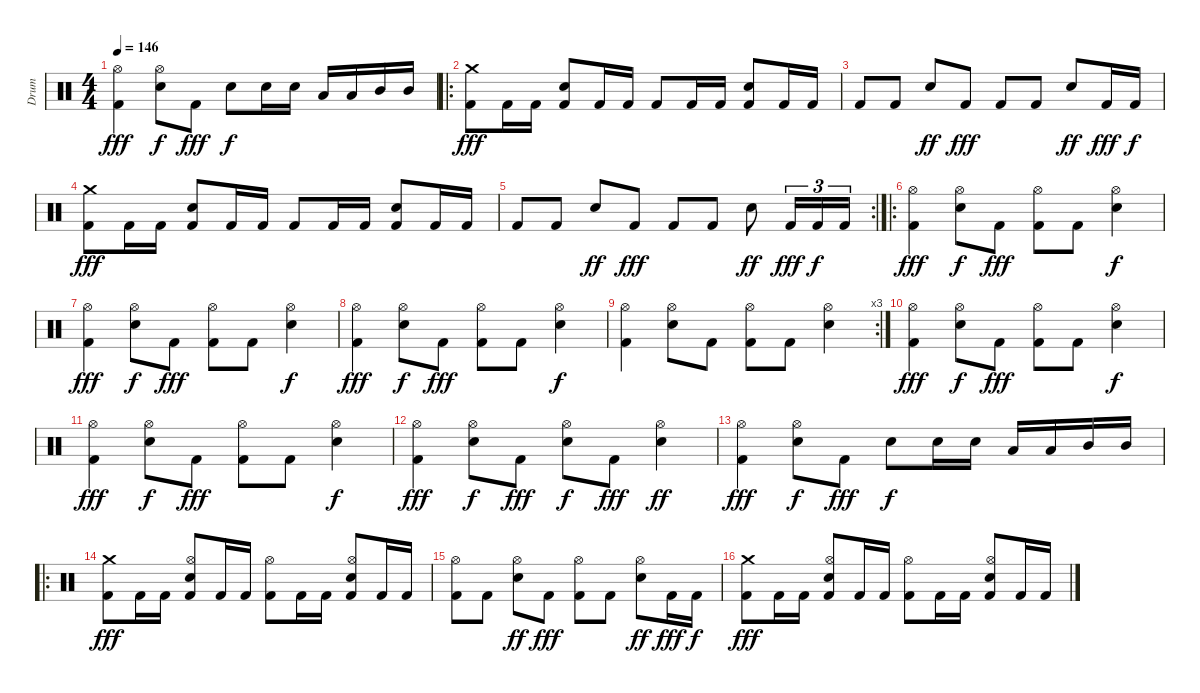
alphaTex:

\track ("Drum" "Drum") {instrument percussion}
\staff {score}
\articulation defaults
\ts (4 4)
\tempo 146
\clef neutral
\ks c
("Kick (hit) 2" "Hi-Hat (open)").4{dy fff} ("Electric Snare (hit)" "Hi-Hat (open)").8{dy f} "Kick (hit) 2".8{dy fff} "Electric Snare (hit)".8{dy f} "Electric Snare (hit)".16 "Electric Snare (hit)".16 "Low Tom (hit)".16 "Low Tom (hit)".16 "Mid Tom (hit)".16 "Mid Tom (hit)".16 |
\ro
("Kick (hit) 2" "Crash medium (hit)").8{dy fff} "Kick (hit) 2".16 "Kick (hit) 2".16 ("Kick (hit) 2" "Electric Snare (hit)").8 "Kick (hit) 2".16 "Kick (hit) 2".16 "Kick (hit) 2".8 "Kick (hit) 2".16 "Kick (hit) 2".16 ("Kick (hit) 2" "Electric Snare (hit)").8 "Kick (hit) 2".16 "Kick (hit) 2".16 |
"Kick (hit) 2".8 "Kick (hit) 2".8 "Electric Snare (hit)".8{dy ff} "Kick (hit) 2".8{dy fff} "Kick (hit) 2".8 "Kick (hit) 2".8 "Electric Snare (hit)".8{dy ff} "Kick (hit) 2".16{dy fff} "Kick (hit) 2".16{dy f} |
("Kick (hit) 2" "Crash medium (hit)").8{dy fff} "Kick (hit) 2".16 "Kick (hit) 2".16 ("Kick (hit) 2" "Electric Snare (hit)").8 "Kick (hit) 2".16 "Kick (hit) 2".16 "Kick (hit) 2".8 "Kick (hit) 2".16 "Kick (hit) 2".16 ("Kick (hit) 2" "Electric Snare (hit)").8 "Kick (hit) 2".16 "Kick (hit) 2".16 |
\rc 2 "Kick (hit) 2".8 "Kick (hit) 2".8 "Electric Snare (hit)".8{dy ff} "Kick (hit) 2".8{dy fff} "Kick (hit) 2".8 "Kick (hit) 2".8 "Electric Snare (hit)".8{dy ff} "Kick (hit) 2".16{tu (3 2) dy fff} "Kick (hit) 2".16{tu (3 2) dy f} "Kick (hit) 2".16{tu (3 2)}
|
\ro
("Kick (hit) 2" "Hi-Hat (open)").4{dy fff} ("Electric Snare (hit)" "Hi-Hat (open)").8{dy f} "Kick (hit) 2".8{dy fff} ("Kick (hit) 2" "Hi-Hat (open)").8 "Kick (hit) 2".8 ("Electric Snare (hit)" "Hi-Hat (open)").4{dy f} |
("Kick (hit) 2" "Hi-Hat (open)").4{dy fff} ("Electric Snare (hit)" "Hi-Hat (open)").8{dy f} "Kick (hit) 2".8{dy fff} ("Kick (hit) 2" "Hi-Hat (open)").8 "Kick (hit) 2".8 ("Electric Snare (hit)" "Hi-Hat (open)").4{dy f} |
("Kick (hit) 2" "Hi-Hat (open)").4{dy fff} ("Electric Snare (hit)" "Hi-Hat (open)").8{dy f} "Kick (hit) 2".8{dy fff} ("Kick (hit) 2" "Hi-Hat (open)").8 "Kick (hit) 2".8 ("Electric Snare (hit)" "Hi-Hat (open)").4{dy f} |
\rc 3
("Kick (hit) 2" "Hi-Hat (open)").4 ("Electric Snare (hit)" "Hi-Hat (open)").8 "Kick (hit) 2".8 ("Kick (hit) 2" "Hi-Hat (open)").8 "Kick (hit) 2".8 ("Electric Snare (hit)" "Hi-Hat (open)").4 |
("Kick (hit) 2" "Hi-Hat (open)").4{dy fff} ("Electric Snare (hit)" "Hi-Hat (open)").8{dy f} "Kick (hit) 2".8{dy fff} ("Kick (hit) 2" "Hi-Hat (open)").8 "Kick (hit) 2".8 ("Electric Snare (hit)" "Hi-Hat (open)").4{dy f} |
("Kick (hit) 2" "Hi-Hat (open)").4{dy fff} ("Electric Snare (hit)" "Hi-Hat (open)").8{dy f} "Kick (hit) 2".8{dy fff} ("Kick (hit) 2" "Hi-Hat (open)").8 "Kick (hit) 2".8 ("Electric Snare (hit)" "Hi-Hat (open)").4{dy f} |
("Kick (hit) 2" "Hi-Hat (open)").4{dy fff} ("Electric Snare (hit)" "Hi-Hat (open)").8{dy f} "Kick (hit) 2".8{dy fff} ("Electric Snare (hit)" "Hi-Hat (open)").8{dy f} "Kick (hit) 2".8{dy fff} ("Electric Snare (hit)" "Hi-Hat (open)").4{dy ff} |
("Kick (hit) 2" "Hi-Hat (open)").4{dy fff} ("Electric Snare (hit)" "Hi-Hat (open)").8{dy f} "Kick (hit) 2".8{dy fff} "Electric Snare (hit)".8{dy f} "Electric Snare (hit)".16 "Electric Snare (hit)".16 "Low Tom (hit)".16 "Low Tom (hit)".16 "Mid Tom (hit)".16 "Mid Tom (hit)".16 |
\ro
("Kick (hit) 2" "Crash medium (hit)").8{dy fff} "Kick (hit) 2".16 "Kick (hit) 2".16 ("Kick (hit) 2" "Electric Snare (hit)" "Hi-Hat (open)").8 "Kick (hit) 2".16 "Kick (hit) 2".16 ("Kick (hit) 2" "Hi-Hat (open)").8 "Kick (hit) 2".16 "Kick (hit) 2".16 ("Kick (hit) 2" "Electric Snare (hit)" "Hi-Hat (open)").8 "Kick (hit) 2".16 "Kick (hit) 2".16 |
("Kick (hit) 2" "Hi-Hat (open)").8 "Kick (hit) 2".8 ("Electric Snare (hit)" "Hi-Hat (open)").8{dy ff} "Kick (hit) 2".8{dy fff} ("Kick (hit) 2" "Hi-Hat (open)").8 "Kick (hit) 2".8 ("Electric Snare (hit)" "Hi-Hat (open)").8{dy ff} "Kick (hit) 2".16{dy fff} "Kick (hit) 2".16{dy f} |
("Kick (hit) 2" "Crash medium (hit)").8{dy fff} "Kick (hit) 2".16 "Kick (hit) 2".16 ("Kick (hit) 2" "Electric Snare (hit)" "Hi-Hat (open)").8 "Kick (hit) 2".16 "Kick (hit) 2".16 ("Kick (hit) 2" "Hi-Hat (open)").8 "Kick (hit) 2".16 "Kick (hit) 2".16 ("Kick (hit) 2" "Electric Snare (hit)" "Hi-Hat (open)").8 "Kick (hit) 2".16 "Kick (hit) 2".16
